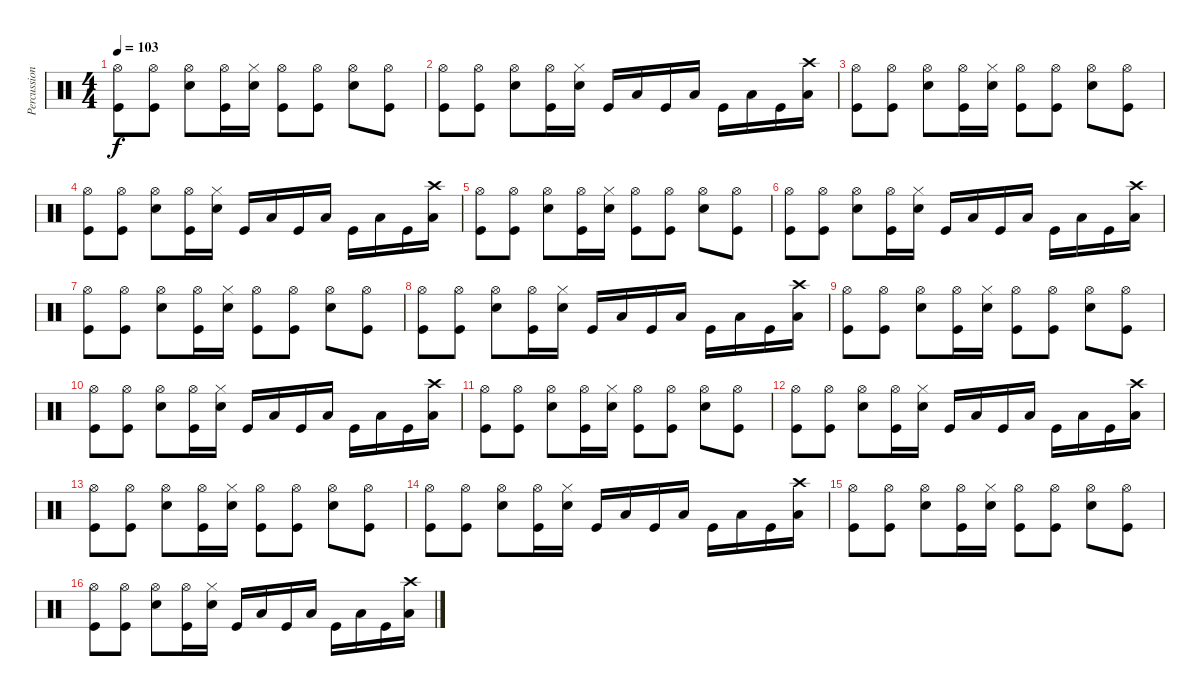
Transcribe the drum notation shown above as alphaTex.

\track ("Percussion" "Percussion") {instrument percussion}
\staff {score}
\articulation defaults
\ts (4 4)
\tempo 103
\clef neutral
\ks c
("Kick (hit)" "Hi-Hat (open)").8{dy f} ("Kick (hit)" "Hi-Hat (open)").8 ("Snare (hit) 2" "Hi-Hat (open)").8 ("Kick (hit)" "Hi-Hat (open)").16 ("Snare (hit) 2" "Hi-Hat (closed)").16 ("Kick (hit)" "Hi-Hat (open)").8 ("Kick (hit)" "Hi-Hat (open)").8 ("Snare (hit) 2" "Hi-Hat (open)").8 ("Kick (hit)" "Hi-Hat (open)").8 |
("Kick (hit)" "Hi-Hat (open)").8 ("Kick (hit)" "Hi-Hat (open)").8 ("Snare (hit) 2" "Hi-Hat (open)").8 ("Kick (hit)" "Hi-Hat (open)").16 ("Snare (hit) 2" "Hi-Hat (closed)").16 "Kick (hit)".16 "Low Floor Tom (hit)".16 "Kick (hit)".16 "Low Floor Tom (hit)".16 "Kick (hit)".16 "Low Floor Tom (hit)".16 "Kick (hit)".16 ("Low Floor Tom (hit)" "Crash high (hit)").16 |
("Kick (hit)" "Hi-Hat (open)").8 ("Kick (hit)" "Hi-Hat (open)").8 ("Snare (hit) 2" "Hi-Hat (open)").8 ("Kick (hit)" "Hi-Hat (open)").16 ("Snare (hit) 2" "Hi-Hat (closed)").16 ("Kick (hit)" "Hi-Hat (open)").8 ("Kick (hit)" "Hi-Hat (open)").8 ("Snare (hit) 2" "Hi-Hat (open)").8 ("Kick (hit)" "Hi-Hat (open)").8 |
("Kick (hit)" "Hi-Hat (open)").8 ("Kick (hit)" "Hi-Hat (open)").8 ("Snare (hit) 2" "Hi-Hat (open)").8 ("Kick (hit)" "Hi-Hat (open)").16 ("Snare (hit) 2" "Hi-Hat (closed)").16 "Kick (hit)".16 "Low Floor Tom (hit)".16 "Kick (hit)".16 "Low Floor Tom (hit)".16 "Kick (hit)".16 "Low Floor Tom (hit)".16 "Kick (hit)".16 ("Low Floor Tom (hit)" "Crash high (hit)").16 |
("Kick (hit)" "Hi-Hat (open)").8 ("Kick (hit)" "Hi-Hat (open)").8 ("Snare (hit) 2" "Hi-Hat (open)").8 ("Kick (hit)" "Hi-Hat (open)").16 ("Snare (hit) 2" "Hi-Hat (closed)").16 ("Kick (hit)" "Hi-Hat (open)").8 ("Kick (hit)" "Hi-Hat (open)").8 ("Snare (hit) 2" "Hi-Hat (open)").8 ("Kick (hit)" "Hi-Hat (open)").8 |
("Kick (hit)" "Hi-Hat (open)").8 ("Kick (hit)" "Hi-Hat (open)").8 ("Snare (hit) 2" "Hi-Hat (open)").8 ("Kick (hit)" "Hi-Hat (open)").16 ("Snare (hit) 2" "Hi-Hat (closed)").16 "Kick (hit)".16 "Low Floor Tom (hit)".16 "Kick (hit)".16 "Low Floor Tom (hit)".16 "Kick (hit)".16 "Low Floor Tom (hit)".16 "Kick (hit)".16 ("Low Floor Tom (hit)" "Crash high (hit)").16 |
("Kick (hit)" "Hi-Hat (open)").8 ("Kick (hit)" "Hi-Hat (open)").8 ("Snare (hit) 2" "Hi-Hat (open)").8 ("Kick (hit)" "Hi-Hat (open)").16 ("Snare (hit) 2" "Hi-Hat (closed)").16 ("Kick (hit)" "Hi-Hat (open)").8 ("Kick (hit)" "Hi-Hat (open)").8 ("Snare (hit) 2" "Hi-Hat (open)").8 ("Kick (hit)" "Hi-Hat (open)").8 |
("Kick (hit)" "Hi-Hat (open)").8 ("Kick (hit)" "Hi-Hat (open)").8 ("Snare (hit) 2" "Hi-Hat (open)").8 ("Kick (hit)" "Hi-Hat (open)").16 ("Snare (hit) 2" "Hi-Hat (closed)").16 "Kick (hit)".16 "Low Floor Tom (hit)".16 "Kick (hit)".16 "Low Floor Tom (hit)".16 "Kick (hit)".16 "Low Floor Tom (hit)".16 "Kick (hit)".16 ("Low Floor Tom (hit)" "Crash high (hit)").16 |
("Kick (hit)" "Hi-Hat (open)").8 ("Kick (hit)" "Hi-Hat (open)").8 ("Snare (hit) 2" "Hi-Hat (open)").8 ("Kick (hit)" "Hi-Hat (open)").16 ("Snare (hit) 2" "Hi-Hat (closed)").16 ("Kick (hit)" "Hi-Hat (open)").8 ("Kick (hit)" "Hi-Hat (open)").8 ("Snare (hit) 2" "Hi-Hat (open)").8 ("Kick (hit)" "Hi-Hat (open)").8 |
("Kick (hit)" "Hi-Hat (open)").8 ("Kick (hit)" "Hi-Hat (open)").8 ("Snare (hit) 2" "Hi-Hat (open)").8 ("Kick (hit)" "Hi-Hat (open)").16 ("Snare (hit) 2" "Hi-Hat (closed)").16 "Kick (hit)".16 "Low Floor Tom (hit)".16 "Kick (hit)".16 "Low Floor Tom (hit)".16 "Kick (hit)".16 "Low Floor Tom (hit)".16 "Kick (hit)".16 ("Low Floor Tom (hit)" "Crash high (hit)").16 |
("Kick (hit)" "Hi-Hat (open)").8 ("Kick (hit)" "Hi-Hat (open)").8 ("Snare (hit) 2" "Hi-Hat (open)").8 ("Kick (hit)" "Hi-Hat (open)").16 ("Snare (hit) 2" "Hi-Hat (closed)").16 ("Kick (hit)" "Hi-Hat (open)").8 ("Kick (hit)" "Hi-Hat (open)").8 ("Snare (hit) 2" "Hi-Hat (open)").8 ("Kick (hit)" "Hi-Hat (open)").8 |
("Kick (hit)" "Hi-Hat (open)").8 ("Kick (hit)" "Hi-Hat (open)").8 ("Snare (hit) 2" "Hi-Hat (open)").8 ("Kick (hit)" "Hi-Hat (open)").16 ("Snare (hit) 2" "Hi-Hat (closed)").16 "Kick (hit)".16 "Low Floor Tom (hit)".16 "Kick (hit)".16 "Low Floor Tom (hit)".16 "Kick (hit)".16 "Low Floor Tom (hit)".16 "Kick (hit)".16 ("Low Floor Tom (hit)" "Crash high (hit)").16 |
("Kick (hit)" "Hi-Hat (open)").8 ("Kick (hit)" "Hi-Hat (open)").8 ("Snare (hit) 2" "Hi-Hat (open)").8 ("Kick (hit)" "Hi-Hat (open)").16 ("Snare (hit) 2" "Hi-Hat (closed)").16 ("Kick (hit)" "Hi-Hat (open)").8 ("Kick (hit)" "Hi-Hat (open)").8 ("Snare (hit) 2" "Hi-Hat (open)").8 ("Kick (hit)" "Hi-Hat (open)").8 |
("Kick (hit)" "Hi-Hat (open)").8 ("Kick (hit)" "Hi-Hat (open)").8 ("Snare (hit) 2" "Hi-Hat (open)").8 ("Kick (hit)" "Hi-Hat (open)").16 ("Snare (hit) 2" "Hi-Hat (closed)").16 "Kick (hit)".16 "Low Floor Tom (hit)".16 "Kick (hit)".16 "Low Floor Tom (hit)".16 "Kick (hit)".16 "Low Floor Tom (hit)".16 "Kick (hit)".16 ("Low Floor Tom (hit)" "Crash high (hit)").16 |
("Kick (hit)" "Hi-Hat (open)").8 ("Kick (hit)" "Hi-Hat (open)").8 ("Snare (hit) 2" "Hi-Hat (open)").8 ("Kick (hit)" "Hi-Hat (open)").16 ("Snare (hit) 2" "Hi-Hat (closed)").16 ("Kick (hit)" "Hi-Hat (open)").8 ("Kick (hit)" "Hi-Hat (open)").8 ("Snare (hit) 2" "Hi-Hat (open)").8 ("Kick (hit)" "Hi-Hat (open)").8 |
("Kick (hit)" "Hi-Hat (open)").8 ("Kick (hit)" "Hi-Hat (open)").8 ("Snare (hit) 2" "Hi-Hat (open)").8 ("Kick (hit)" "Hi-Hat (open)").16 ("Snare (hit) 2" "Hi-Hat (closed)").16 "Kick (hit)".16 "Low Floor Tom (hit)".16 "Kick (hit)".16 "Low Floor Tom (hit)".16 "Kick (hit)".16 "Low Floor Tom (hit)".16 "Kick (hit)".16 ("Low Floor Tom (hit)" "Crash high (hit)").16
